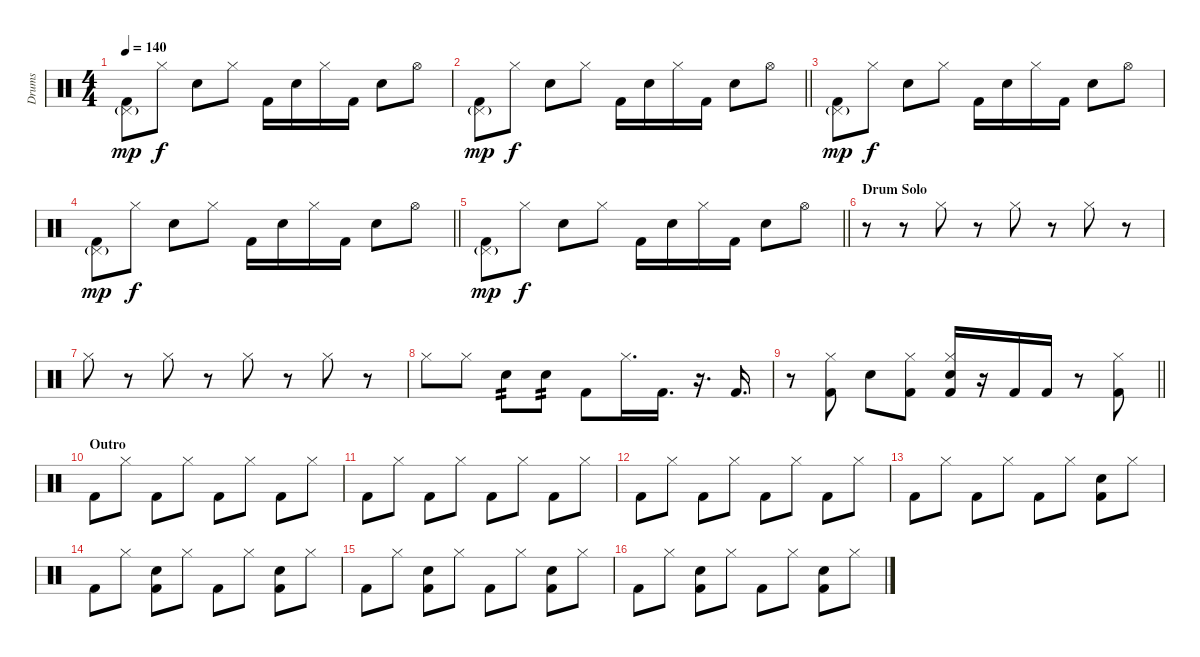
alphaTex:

\track ("Drums" "Drums") {instrument percussion}
\staff {score}
\articulation defaults
\ts (4 4)
\tempo 140
\clef neutral
\ks c
("Pedal Hi-Hat (hit)"{g} "Kick (hit) 2").8{dy mp} "Hi-Hat (closed)".8{dy f} "Snare (hit) 2".8 "Hi-Hat (closed)".8 "Kick (hit) 2".16 "Snare (hit) 2".16 "Hi-Hat (closed)".16 "Kick (hit) 2".16 "Snare (hit) 2".8 "Hi-Hat (open)".8 |
\barLineRight lightlight
("Pedal Hi-Hat (hit)"{g} "Kick (hit) 2").8{dy mp} "Hi-Hat (closed)".8{dy f} "Snare (hit) 2".8 "Hi-Hat (closed)".8 "Kick (hit) 2".16 "Snare (hit) 2".16 "Hi-Hat (closed)".16 "Kick (hit) 2".16 "Snare (hit) 2".8 "Hi-Hat (open)".8 |
("Pedal Hi-Hat (hit)"{g} "Kick (hit) 2").8{dy mp} "Hi-Hat (closed)".8{dy f} "Snare (hit) 2".8 "Hi-Hat (closed)".8 "Kick (hit) 2".16 "Snare (hit) 2".16 "Hi-Hat (closed)".16 "Kick (hit) 2".16 "Snare (hit) 2".8 "Hi-Hat (open)".8 |
\barLineRight lightlight
("Pedal Hi-Hat (hit)"{g} "Kick (hit) 2").8{dy mp} "Hi-Hat (closed)".8{dy f} "Snare (hit) 2".8 "Hi-Hat (closed)".8 "Kick (hit) 2".16 "Snare (hit) 2".16 "Hi-Hat (closed)".16 "Kick (hit) 2".16 "Snare (hit) 2".8 "Hi-Hat (open)".8 |
\barLineRight lightlight
("Pedal Hi-Hat (hit)"{g} "Kick (hit) 2").8{dy mp} "Hi-Hat (closed)".8{dy f} "Snare (hit) 2".8 "Hi-Hat (closed)".8 "Kick (hit) 2".16 "Snare (hit) 2".16 "Hi-Hat (closed)".16 "Kick (hit) 2".16 "Snare (hit) 2".8 "Hi-Hat (open)".8 |
\section ("" "Drum Solo")
r.8 r.8 "Hi-Hat (closed)".8 r.8 "Hi-Hat (closed)".8 r.8 "Hi-Hat (closed)".8 r.8 |
"Hi-Hat (closed)".8 r.8 "Hi-Hat (closed)".8 r.8 "Hi-Hat (closed)".8 r.8 "Hi-Hat (closed)".8 r.8 |
"Hi-Hat (closed)".8 "Hi-Hat (closed)".8 "Snare (hit) 2".8{tp 2} "Snare (hit) 2".8{tp 2} "Kick (hit) 2".8 "Hi-Hat (closed)".16{d} "Kick (hit) 2".16{d} r.16{d} "Kick (hit) 2".16{d} |
\barLineRight lightlight
r.8 ("Hi-Hat (closed)" "Kick (hit) 2").8 "Snare (hit) 2".8 ("Hi-Hat (closed)" "Kick (hit) 2").8 ("Hi-Hat (closed)" "Snare (hit) 2" "Kick (hit) 2").16 r.16 "Kick (hit) 2".16 "Kick (hit) 2".16 r.8 ("Hi-Hat (closed)" "Kick (hit) 2").8 |
\section ("" "Outro")
"Kick (hit) 2".8 "Hi-Hat (closed)".8 "Kick (hit) 2".8 "Hi-Hat (closed)".8 "Kick (hit) 2".8 "Hi-Hat (closed)".8 "Kick (hit) 2".8 "Hi-Hat (closed)".8 |
"Kick (hit) 2".8 "Hi-Hat (closed)".8 "Kick (hit) 2".8 "Hi-Hat (closed)".8 "Kick (hit) 2".8 "Hi-Hat (closed)".8 "Kick (hit) 2".8 "Hi-Hat (closed)".8 |
"Kick (hit) 2".8 "Hi-Hat (closed)".8 "Kick (hit) 2".8 "Hi-Hat (closed)".8 "Kick (hit) 2".8 "Hi-Hat (closed)".8 "Kick (hit) 2".8 "Hi-Hat (closed)".8 |
"Kick (hit) 2".8 "Hi-Hat (closed)".8 "Kick (hit) 2".8 "Hi-Hat (closed)".8 "Kick (hit) 2".8 "Hi-Hat (closed)".8 ("Snare (hit) 2" "Kick (hit) 2").8 "Hi-Hat (closed)".8 |
"Kick (hit) 2".8 "Hi-Hat (closed)".8 ("Snare (hit) 2" "Kick (hit) 2").8 "Hi-Hat (closed)".8 "Kick (hit) 2".8 "Hi-Hat (closed)".8 ("Snare (hit) 2" "Kick (hit) 2").8 "Hi-Hat (closed)".8 |
"Kick (hit) 2".8 "Hi-Hat (closed)".8 ("Snare (hit) 2" "Kick (hit) 2").8 "Hi-Hat (closed)".8 "Kick (hit) 2".8 "Hi-Hat (closed)".8 ("Snare (hit) 2" "Kick (hit) 2").8 "Hi-Hat (closed)".8 |
"Kick (hit) 2".8 "Hi-Hat (closed)".8 ("Snare (hit) 2" "Kick (hit) 2").8 "Hi-Hat (closed)".8 "Kick (hit) 2".8 "Hi-Hat (closed)".8 ("Snare (hit) 2" "Kick (hit) 2").8 "Hi-Hat (closed)".8
